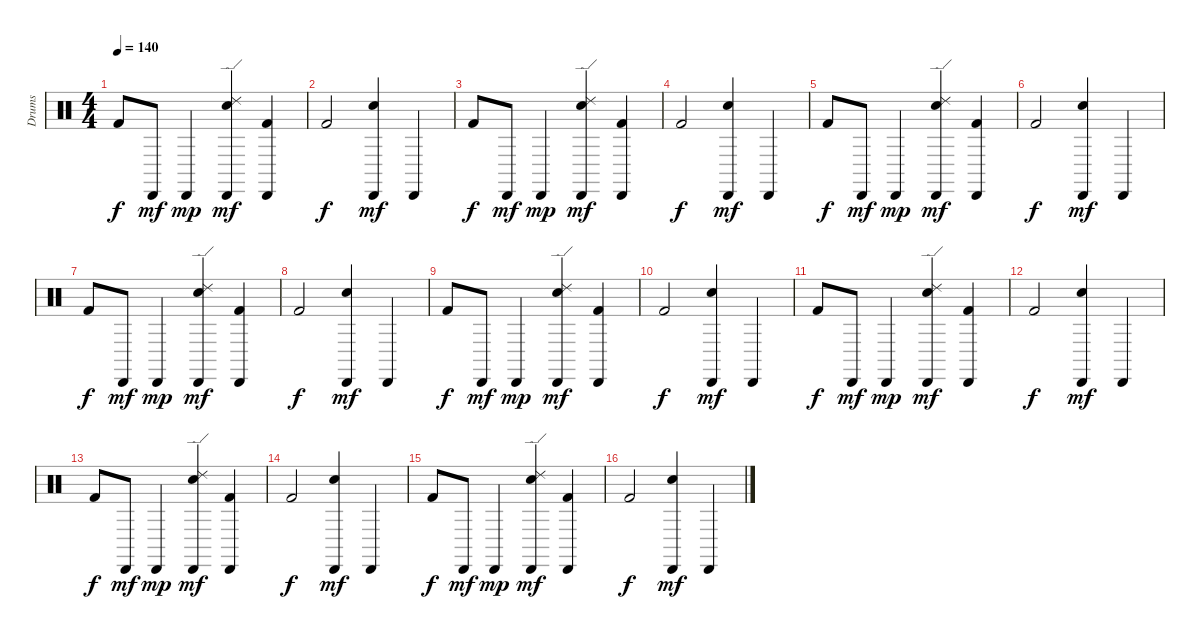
\track ("Drums" "Drums") {instrument percussion}
\staff {score}
\articulation defaults
\ts (4 4)
\tempo 140
\clef neutral
\ks c "Kick (hit) 2".8{dy f} "Cabasa (hit)".8{dy mf} "Cabasa (hit)".4{dy mp}
("Snare (hit) 2" "Cabasa (hit)" "Ride (edge) 2").4{dy mf} ("Kick (hit) 2" "Cabasa (hit)").4 |
"Kick (hit) 2".2{dy f} ("Snare (hit) 2" "Cabasa (hit)").4{dy mf} "Cabasa (hit)".4 |
"Kick (hit) 2".8{dy f} "Cabasa (hit)".8{dy mf} "Cabasa (hit)".4{dy mp} ("Snare (hit) 2" "Cabasa (hit)" "Ride (edge) 2").4{dy mf} ("Kick (hit) 2" "Cabasa (hit)").4 |
"Kick (hit) 2".2{dy f} ("Snare (hit) 2" "Cabasa (hit)").4{dy mf} "Cabasa (hit)".4 |
"Kick (hit) 2".8{dy f} "Cabasa (hit)".8{dy mf} "Cabasa (hit)".4{dy mp} ("Snare (hit) 2" "Cabasa (hit)" "Ride (edge) 2").4{dy mf} ("Kick (hit) 2" "Cabasa (hit)").4 |
"Kick (hit) 2".2{dy f} ("Snare (hit) 2" "Cabasa (hit)").4{dy mf} "Cabasa (hit)".4 |
"Kick (hit) 2".8{dy f} "Cabasa (hit)".8{dy mf} "Cabasa (hit)".4{dy mp} ("Snare (hit) 2" "Cabasa (hit)" "Ride (edge) 2").4{dy mf} ("Kick (hit) 2" "Cabasa (hit)").4 |
"Kick (hit) 2".2{dy f} ("Snare (hit) 2" "Cabasa (hit)").4{dy mf} "Cabasa (hit)".4 |
"Kick (hit) 2".8{dy f} "Cabasa (hit)".8{dy mf} "Cabasa (hit)".4{dy mp} ("Snare (hit) 2" "Cabasa (hit)" "Ride (edge) 2").4{dy mf} ("Kick (hit) 2" "Cabasa (hit)").4 |
"Kick (hit) 2".2{dy f} ("Snare (hit) 2" "Cabasa (hit)").4{dy mf} "Cabasa (hit)".4 |
"Kick (hit) 2".8{dy f} "Cabasa (hit)".8{dy mf} "Cabasa (hit)".4{dy mp} ("Snare (hit) 2" "Cabasa (hit)" "Ride (edge) 2").4{dy mf} ("Kick (hit) 2" "Cabasa (hit)").4 |
"Kick (hit) 2".2{dy f} ("Snare (hit) 2" "Cabasa (hit)").4{dy mf} "Cabasa (hit)".4 |
"Kick (hit) 2".8{dy f} "Cabasa (hit)".8{dy mf} "Cabasa (hit)".4{dy mp} ("Snare (hit) 2" "Cabasa (hit)" "Ride (edge) 2").4{dy mf} ("Kick (hit) 2" "Cabasa (hit)").4 |
"Kick (hit) 2".2{dy f} ("Snare (hit) 2" "Cabasa (hit)").4{dy mf} "Cabasa (hit)".4 |
"Kick (hit) 2".8{dy f} "Cabasa (hit)".8{dy mf} "Cabasa (hit)".4{dy mp} ("Snare (hit) 2" "Cabasa (hit)" "Ride (edge) 2").4{dy mf} ("Kick (hit) 2" "Cabasa (hit)").4 |
"Kick (hit) 2".2{dy f} ("Snare (hit) 2" "Cabasa (hit)").4{dy mf} "Cabasa (hit)".4
